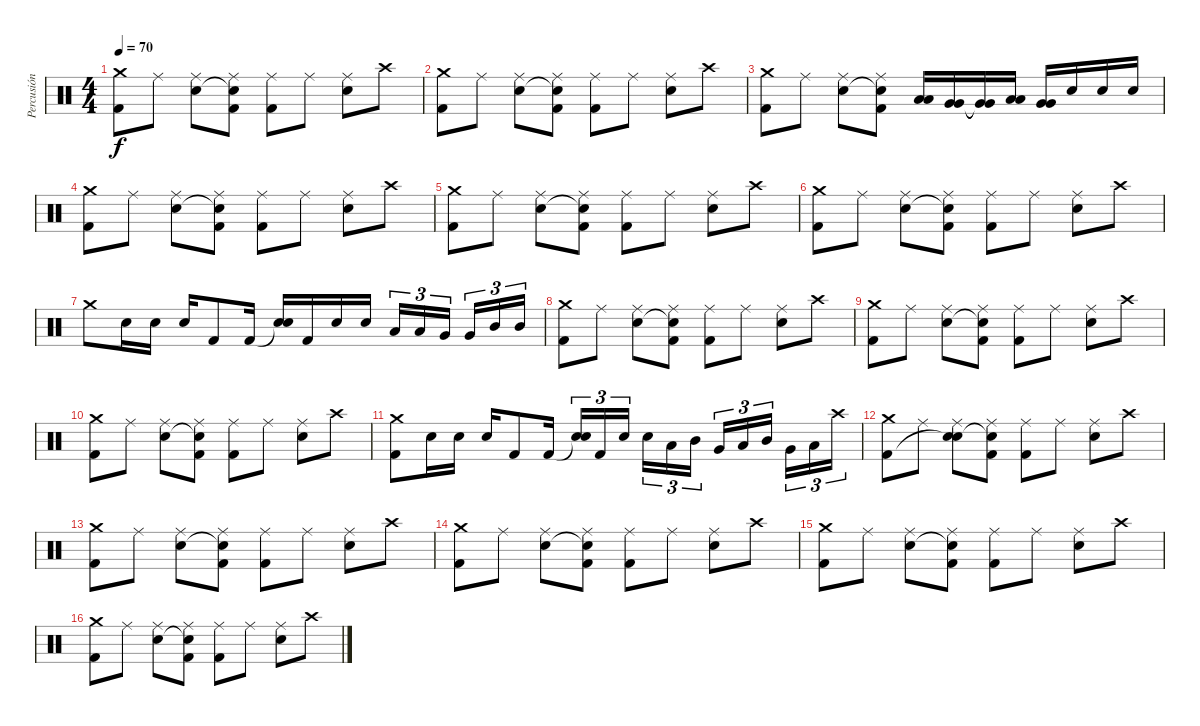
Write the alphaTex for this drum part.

\track ("Percusión" "Percusión") {instrument percussion}
\staff {score}
\articulation defaults
\ts (4 4)
\tempo 70
\clef neutral
\ks c
("Crash medium (hit)" "Kick (hit) 2").8{dy f} "Ride (middle)".8 ("Ride (middle)" "Snare (hit) 2").8 ("Ride (middle)" "Snare (hit)"{t} "Kick (hit) 2").8 ("Ride (middle)" "Kick (hit) 2").8 "Ride (middle)".8 ("Ride (middle)" "Snare (hit) 2").8 "Crash high (hit)".8 |
("Crash medium (hit)" "Kick (hit) 2").8 "Ride (middle)".8 ("Ride (middle)" "Snare (hit) 2").8 ("Ride (middle)" "Snare (hit)"{t} "Kick (hit) 2").8 ("Ride (middle)" "Kick (hit) 2").8 "Ride (middle)".8 ("Ride (middle)" "Snare (hit) 2").8 "Crash high (hit)".8 |
("Crash medium (hit)" "Kick (hit) 2").8 "Ride (middle)".8 ("Ride (middle)" "Snare (hit) 2").8 ("Ride (middle)" "Snare (hit)"{t} "Kick (hit) 2").8 ("Low Tom (hit)" "Low Tom (hit)").16 ("Very Low Tom (hit)" "Very Low Tom (hit)").16 ("Very Low Tom (hit)"{t} "Very Low Tom (hit)"{t}).16 ("Low Tom (hit)" "Low Tom (hit)").16 ("Very Low Tom (hit)" "Very Low Tom (hit)").16 "Snare (hit) 2".16 "Snare (hit) 2".16 "Snare (hit) 2".16 |
("Crash medium (hit)" "Kick (hit) 2").8 "Ride (middle)".8 ("Ride (middle)" "Snare (hit) 2").8 ("Ride (middle)" "Snare (hit)"{t} "Kick (hit) 2").8 ("Ride (middle)" "Kick (hit) 2").8 "Ride (middle)".8 ("Ride (middle)" "Snare (hit) 2").8 "Crash high (hit)".8 |
("Crash medium (hit)" "Kick (hit) 2").8 "Ride (middle)".8 ("Ride (middle)" "Snare (hit) 2").8 ("Ride (middle)" "Snare (hit)"{t} "Kick (hit) 2").8 ("Ride (middle)" "Kick (hit) 2").8 "Ride (middle)".8 ("Ride (middle)" "Snare (hit) 2").8 "Crash high (hit)".8 |
("Crash medium (hit)" "Kick (hit) 2").8 "Ride (middle)".8 ("Ride (middle)" "Snare (hit) 2").8 ("Ride (middle)" "Snare (hit)"{t} "Kick (hit) 2").8 ("Ride (middle)" "Kick (hit) 2").8 "Ride (middle)".8 ("Ride (middle)" "Snare (hit) 2").8 "Crash high (hit)".8 |
"Crash medium (hit)".8 "Snare (hit) 2".16 "Snare (hit) 2".16 "Snare (hit) 2".16 "Kick (hit) 2".8 "Kick (hit) 2".16 ("Snare (hit)"{t} "Snare (hit) 2").16 "Kick (hit) 2".16 "Snare (hit) 2".16 "Snare (hit) 2".16 "Low Tom (hit)".16{tu (3 2)} "Low Tom (hit)".16{tu (3 2)} "Very Low Tom (hit)".16{tu (3 2)} "Very Low Tom (hit)".16{tu (3 2)} "Mid Tom (hit)".16{tu (3 2)} "Mid Tom (hit)".16{tu (3 2)} |
("Crash medium (hit)" "Kick (hit) 2").8 "Ride (middle)".8 ("Ride (middle)" "Snare (hit) 2").8 ("Ride (middle)" "Snare (hit)"{t} "Kick (hit) 2").8 ("Ride (middle)" "Kick (hit) 2").8 "Ride (middle)".8 ("Ride (middle)" "Snare (hit) 2").8 "Crash high (hit)".8 |
("Crash medium (hit)" "Kick (hit) 2").8 "Ride (middle)".8 ("Ride (middle)" "Snare (hit) 2").8 ("Ride (middle)" "Snare (hit)"{t} "Kick (hit) 2").8 ("Ride (middle)" "Kick (hit) 2").8 "Ride (middle)".8 ("Ride (middle)" "Snare (hit) 2").8 "Crash high (hit)".8 |
("Crash medium (hit)" "Kick (hit) 2").8 "Ride (middle)".8 ("Ride (middle)" "Snare (hit) 2").8 ("Ride (middle)" "Snare (hit)"{t} "Kick (hit) 2").8 ("Ride (middle)" "Kick (hit) 2").8 "Ride (middle)".8 ("Ride (middle)" "Snare (hit) 2").8 "Crash high (hit)".8 |
("Crash medium (hit)" "Kick (hit) 2").8 "Snare (hit) 2".16 "Snare (hit) 2".16 "Snare (hit) 2".16 "Kick (hit) 2".8 "Kick (hit) 2".16 ("Snare (hit)"{t} "Snare (hit) 2").16{tu (3 2)} "Kick (hit) 2".16{tu (3 2)} "Snare (hit) 2".16{tu (3 2)} "Snare (hit) 2".16{tu (3 2)} "Low Tom (hit)".16{tu (3 2)} "Mid Tom (hit)".16{tu (3 2)} "Very Low Tom (hit)".16{tu (3 2)} "Low Tom (hit)".16{tu (3 2)} "Mid Tom (hit)".16{tu (3 2)} "Very Low Tom (hit)".16{tu (3 2)} "Low Tom (hit)".16{tu (3 2)} "Crash high (hit)".16{tu (3 2)} |
("Crash medium (hit)" "Kick (hit) 2").8 "Ride (middle)".8 ("Ride (middle)" "Snare (hit)"{t} "Snare (hit) 2").8 ("Ride (middle)" "Snare (hit)"{t} "Kick (hit) 2").8 ("Ride (middle)" "Kick (hit) 2").8 "Ride (middle)".8 ("Ride (middle)" "Snare (hit) 2").8 "Crash high (hit)".8 |
("Crash medium (hit)" "Kick (hit) 2").8 "Ride (middle)".8 ("Ride (middle)" "Snare (hit) 2").8 ("Ride (middle)" "Snare (hit)"{t} "Kick (hit) 2").8 ("Ride (middle)" "Kick (hit) 2").8 "Ride (middle)".8 ("Ride (middle)" "Snare (hit) 2").8 "Crash high (hit)".8 |
("Crash medium (hit)" "Kick (hit) 2").8 "Ride (middle)".8 ("Ride (middle)" "Snare (hit) 2").8 ("Ride (middle)" "Snare (hit)"{t} "Kick (hit) 2").8 ("Ride (middle)" "Kick (hit) 2").8 "Ride (middle)".8 ("Ride (middle)" "Snare (hit) 2").8 "Crash high (hit)".8 |
("Crash medium (hit)" "Kick (hit) 2").8 "Ride (middle)".8 ("Ride (middle)" "Snare (hit) 2").8 ("Ride (middle)" "Snare (hit)"{t} "Kick (hit) 2").8 ("Ride (middle)" "Kick (hit) 2").8 "Ride (middle)".8 ("Ride (middle)" "Snare (hit) 2").8 "Crash high (hit)".8 |
("Crash medium (hit)" "Kick (hit) 2").8 "Ride (middle)".8 ("Ride (middle)" "Snare (hit) 2").8 ("Ride (middle)" "Snare (hit)"{t} "Kick (hit) 2").8 ("Ride (middle)" "Kick (hit) 2").8 "Ride (middle)".8 ("Ride (middle)" "Snare (hit) 2").8 "Crash high (hit)".8
